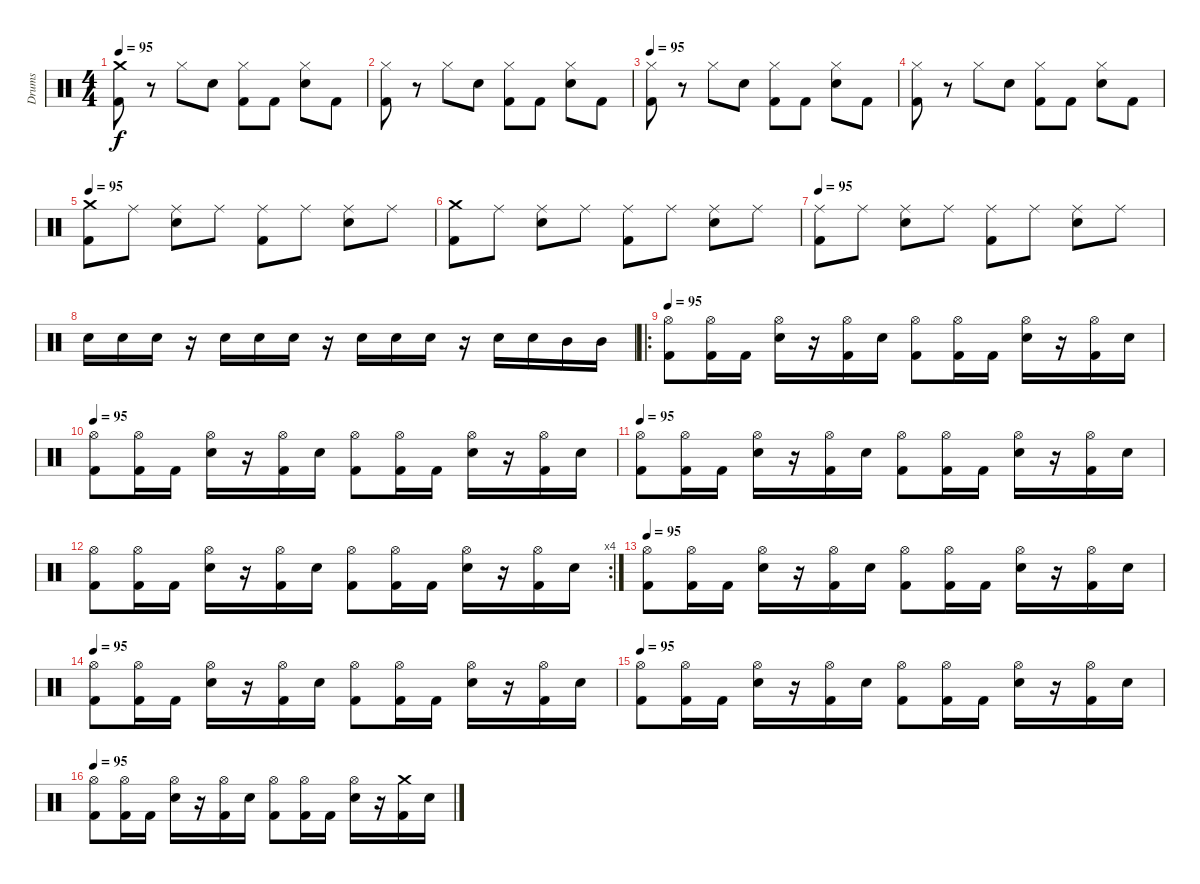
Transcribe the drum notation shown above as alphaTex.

\track ("Drums" "Drums") {instrument percussion}
\staff {score}
\articulation defaults
\ts (4 4)
\tempo 95
\clef neutral
\ks c
("Crash medium (hit)" "Kick (hit) 2").8{dy f} r.8 "Hi-Hat (closed)".8 "Electric Snare (hit)".8 ("Hi-Hat (closed)" "Kick (hit) 2").8 "Kick (hit) 2".8 ("Hi-Hat (closed)" "Electric Snare (hit)").8 "Kick (hit) 2".8 |
("Hi-Hat (closed)" "Kick (hit) 2").8 r.8 "Hi-Hat (closed)".8 "Electric Snare (hit)".8 ("Hi-Hat (closed)" "Kick (hit) 2").8 "Kick (hit) 2".8 ("Hi-Hat (closed)" "Electric Snare (hit)").8 "Kick (hit) 2".8 |
\tempo 95
("Hi-Hat (closed)" "Kick (hit) 2").8 r.8 "Hi-Hat (closed)".8 "Electric Snare (hit)".8 ("Hi-Hat (closed)" "Kick (hit) 2").8 "Kick (hit) 2".8 ("Hi-Hat (closed)" "Electric Snare (hit)").8 "Kick (hit) 2".8 |
("Hi-Hat (closed)" "Kick (hit) 2").8 r.8 "Hi-Hat (closed)".8 "Electric Snare (hit)".8 ("Hi-Hat (closed)" "Kick (hit) 2").8 "Kick (hit) 2".8 ("Hi-Hat (closed)" "Electric Snare (hit)").8 "Kick (hit) 2".8 |
\tempo 95
("Crash medium (hit)" "Kick (hit) 2").8 "Ride (middle)".8 ("Ride (middle)" "Electric Snare (hit)").8 "Ride (middle)".8 ("Ride (middle)" "Kick (hit) 2").8 "Ride (middle)".8 ("Ride (middle)" "Electric Snare (hit)").8 "Ride (middle)".8 |
("Crash medium (hit)" "Kick (hit) 2").8 "Ride (middle)".8 ("Ride (middle)" "Electric Snare (hit)").8 "Ride (middle)".8 ("Ride (middle)" "Kick (hit) 2").8 "Ride (middle)".8 ("Ride (middle)" "Electric Snare (hit)").8 "Ride (middle)".8 |
\tempo 95
("Ride (middle)" "Kick (hit) 2").8 "Ride (middle)".8 ("Ride (middle)" "Electric Snare (hit)").8 "Ride (middle)".8 ("Ride (middle)" "Kick (hit) 2").8 "Ride (middle)".8 ("Ride (middle)" "Electric Snare (hit)").8 "Ride (middle)".8 |
"Electric Snare (hit)".16 "Electric Snare (hit)".16 "Electric Snare (hit)".16 r.16 "Electric Snare (hit)".16 "Electric Snare (hit)".16 "Electric Snare (hit)".16 r.16 "Electric Snare (hit)".16 "Electric Snare (hit)".16 "Electric Snare (hit)".16 r.16 "Electric Snare (hit)".16 "Electric Snare (hit)".16 "Mid Tom (hit)".16 "Mid Tom (hit)".16 |
\ro
\tempo 95
("Kick (hit) 2" "Hi-Hat (open)").8 ("Kick (hit) 2" "Hi-Hat (open)").16 "Kick (hit) 2".16 ("Electric Snare (hit)" "Hi-Hat (open)").16 r.16 ("Kick (hit) 2" "Hi-Hat (open)").16 "Electric Snare (hit)".16 ("Kick (hit) 2" "Hi-Hat (open)").8 ("Kick (hit) 2" "Hi-Hat (open)").16 "Kick (hit) 2".16 ("Electric Snare (hit)" "Hi-Hat (open)").16 r.16 ("Kick (hit) 2" "Hi-Hat (open)").16 "Electric Snare (hit)".16 |
\tempo 95
("Kick (hit) 2" "Hi-Hat (open)").8 ("Kick (hit) 2" "Hi-Hat (open)").16 "Kick (hit) 2".16 ("Electric Snare (hit)" "Hi-Hat (open)").16 r.16 ("Kick (hit) 2" "Hi-Hat (open)").16 "Electric Snare (hit)".16 ("Kick (hit) 2" "Hi-Hat (open)").8 ("Kick (hit) 2" "Hi-Hat (open)").16 "Kick (hit) 2".16 ("Electric Snare (hit)" "Hi-Hat (open)").16 r.16 ("Kick (hit) 2" "Hi-Hat (open)").16 "Electric Snare (hit)".16 |
\tempo 95
("Kick (hit) 2" "Hi-Hat (open)").8 ("Kick (hit) 2" "Hi-Hat (open)").16 "Kick (hit) 2".16 ("Electric Snare (hit)" "Hi-Hat (open)").16 r.16 ("Kick (hit) 2" "Hi-Hat (open)").16 "Electric Snare (hit)".16 ("Kick (hit) 2" "Hi-Hat (open)").8 ("Kick (hit) 2" "Hi-Hat (open)").16 "Kick (hit) 2".16 ("Electric Snare (hit)" "Hi-Hat (open)").16 r.16 ("Kick (hit) 2" "Hi-Hat (open)").16 "Electric Snare (hit)".16 |
\rc 4
("Kick (hit) 2" "Hi-Hat (open)").8 ("Kick (hit) 2" "Hi-Hat (open)").16 "Kick (hit) 2".16 ("Electric Snare (hit)" "Hi-Hat (open)").16 r.16 ("Kick (hit) 2" "Hi-Hat (open)").16 "Electric Snare (hit)".16 ("Kick (hit) 2" "Hi-Hat (open)").8 ("Kick (hit) 2" "Hi-Hat (open)").16 "Kick (hit) 2".16 ("Electric Snare (hit)" "Hi-Hat (open)").16 r.16 ("Kick (hit) 2" "Hi-Hat (open)").16 "Electric Snare (hit)".16 |
\tempo 95
("Kick (hit) 2" "Hi-Hat (open)").8 ("Kick (hit) 2" "Hi-Hat (open)").16 "Kick (hit) 2".16 ("Electric Snare (hit)" "Hi-Hat (open)").16 r.16 ("Kick (hit) 2" "Hi-Hat (open)").16 "Electric Snare (hit)".16 ("Kick (hit) 2" "Hi-Hat (open)").8 ("Kick (hit) 2" "Hi-Hat (open)").16 "Kick (hit) 2".16 ("Electric Snare (hit)" "Hi-Hat (open)").16 r.16 ("Kick (hit) 2" "Hi-Hat (open)").16 "Electric Snare (hit)".16 |
\tempo 95
("Kick (hit) 2" "Hi-Hat (open)").8 ("Kick (hit) 2" "Hi-Hat (open)").16 "Kick (hit) 2".16 ("Electric Snare (hit)" "Hi-Hat (open)").16 r.16 ("Kick (hit) 2" "Hi-Hat (open)").16 "Electric Snare (hit)".16 ("Kick (hit) 2" "Hi-Hat (open)").8 ("Kick (hit) 2" "Hi-Hat (open)").16 "Kick (hit) 2".16 ("Electric Snare (hit)" "Hi-Hat (open)").16 r.16 ("Kick (hit) 2" "Hi-Hat (open)").16 "Electric Snare (hit)".16 |
\tempo 95
("Kick (hit) 2" "Hi-Hat (open)").8 ("Kick (hit) 2" "Hi-Hat (open)").16 "Kick (hit) 2".16 ("Electric Snare (hit)" "Hi-Hat (open)").16 r.16 ("Kick (hit) 2" "Hi-Hat (open)").16 "Electric Snare (hit)".16 ("Kick (hit) 2" "Hi-Hat (open)").8 ("Kick (hit) 2" "Hi-Hat (open)").16 "Kick (hit) 2".16 ("Electric Snare (hit)" "Hi-Hat (open)").16 r.16 ("Kick (hit) 2" "Hi-Hat (open)").16 "Electric Snare (hit)".16 |
\tempo 95
("Kick (hit) 2" "Hi-Hat (open)").8 ("Kick (hit) 2" "Hi-Hat (open)").16 "Kick (hit) 2".16 ("Electric Snare (hit)" "Hi-Hat (open)").16 r.16 ("Kick (hit) 2" "Hi-Hat (open)").16 "Electric Snare (hit)".16 ("Kick (hit) 2" "Hi-Hat (open)").8 ("Kick (hit) 2" "Hi-Hat (open)").16 "Kick (hit) 2".16 ("Electric Snare (hit)" "Hi-Hat (open)").16 r.16 ("Kick (hit) 2" "Crash medium (hit)").16 "Electric Snare (hit)".16
